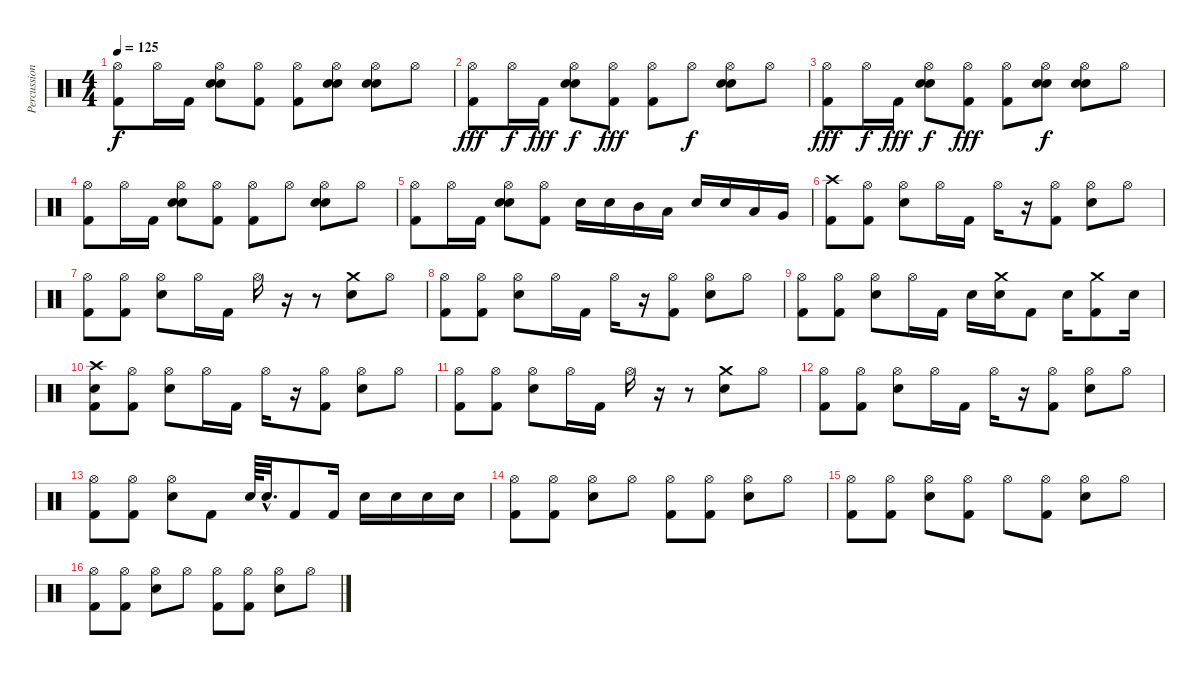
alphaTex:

\track ("Percussion" "Percussion") {instrument percussion}
\staff {score}
\articulation defaults
\ts (4 4)
\tempo 125
\clef neutral
\ks c
("Hi-Hat (open)" "Kick (hit) 2").8{dy f} "Hi-Hat (open)".16 "Kick (hit) 2".16 ("Hand Clap (hit)" "Hi-Hat (open)" "Electric Snare (hit)").8 ("Hi-Hat (open)" "Kick (hit) 2").8 ("Hi-Hat (open)" "Kick (hit) 2").8 ("Hand Clap (hit)" "Hi-Hat (open)" "Electric Snare (hit)").8 ("Hand Clap (hit)" "Hi-Hat (open)" "Electric Snare (hit)").8 "Hi-Hat (open)".8 |
("Hi-Hat (open)" "Kick (hit) 2").8{dy fff} "Hi-Hat (open)".16{dy f} "Kick (hit) 2".16{dy fff} ("Hand Clap (hit)" "Hi-Hat (open)" "Electric Snare (hit)").8{dy f} ("Hi-Hat (open)" "Kick (hit) 2").8{dy fff} ("Hi-Hat (open)" "Kick (hit) 2").8 "Hi-Hat (open)".8{dy f} ("Hand Clap (hit)" "Hi-Hat (open)" "Electric Snare (hit)").8 "Hi-Hat (open)".8 |
("Hi-Hat (open)" "Kick (hit) 2").8{dy fff} "Hi-Hat (open)".16{dy f} "Kick (hit) 2".16{dy fff} ("Hand Clap (hit)" "Hi-Hat (open)" "Electric Snare (hit)").8{dy f} ("Hi-Hat (open)" "Kick (hit) 2").8{dy fff} ("Hi-Hat (open)" "Kick (hit) 2").8 ("Hand Clap (hit)" "Hi-Hat (open)" "Electric Snare (hit)").8{dy f} ("Hand Clap (hit)" "Hi-Hat (open)" "Electric Snare (hit)").8 "Hi-Hat (open)".8 |
("Hi-Hat (open)" "Kick (hit) 2").8 "Hi-Hat (open)".16 "Kick (hit) 2".16 ("Hand Clap (hit)" "Hi-Hat (open)" "Electric Snare (hit)").8 ("Hi-Hat (open)" "Kick (hit) 2").8 ("Hi-Hat (open)" "Kick (hit) 2").8 "Hi-Hat (open)".8 ("Hand Clap (hit)" "Hi-Hat (open)" "Electric Snare (hit)").8 "Hi-Hat (open)".8 |
("Hi-Hat (open)" "Kick (hit) 2").8 "Hi-Hat (open)".16 "Kick (hit) 2".16 ("Hand Clap (hit)" "Hi-Hat (open)" "Electric Snare (hit)").8 ("Hi-Hat (open)" "Kick (hit) 2").8 "Electric Snare (hit)".16 "Electric Snare (hit)".16 "Mid Tom (hit)".16 "Low Tom (hit)".16 "Electric Snare (hit)".16 "Electric Snare (hit)".16 "Low Tom (hit)".16 "Very Low Tom (hit)".16 |
("Crash high (hit)" "Kick (hit) 2").8 ("Hi-Hat (open)" "Kick (hit) 2").8 ("Hi-Hat (open)" "Electric Snare (hit)").8 "Hi-Hat (open)".16 "Kick (hit) 2".16 "Hi-Hat (open)".16 r.16 ("Hi-Hat (open)" "Kick (hit) 2").8 ("Hi-Hat (open)" "Electric Snare (hit)").8 "Hi-Hat (open)".8 |
("Hi-Hat (open)" "Kick (hit) 2").8 ("Hi-Hat (open)" "Kick (hit) 2").8 ("Hi-Hat (open)" "Electric Snare (hit)").8 "Hi-Hat (open)".16 "Kick (hit) 2".16 "Hi-Hat (open)".16 r.16 r.8 ("Crash medium (hit)" "Electric Snare (hit)").8 "Hi-Hat (open)".8 |
("Hi-Hat (open)" "Kick (hit) 2").8 ("Hi-Hat (open)" "Kick (hit) 2").8 ("Hi-Hat (open)" "Electric Snare (hit)").8 "Hi-Hat (open)".16 "Kick (hit) 2".16 "Hi-Hat (open)".16 r.16 ("Hi-Hat (open)" "Kick (hit) 2").8 ("Hi-Hat (open)" "Electric Snare (hit)").8 "Hi-Hat (open)".8 |
("Hi-Hat (open)" "Kick (hit) 2").8 ("Hi-Hat (open)" "Kick (hit) 2").8 ("Hi-Hat (open)" "Electric Snare (hit)").8 "Hi-Hat (open)".16 "Kick (hit) 2".16 "Electric Snare (hit)".16 ("Crash medium (hit)" "Electric Snare (hit)").16 "Kick (hit) 2".8 "Electric Snare (hit)".16 ("Crash medium (hit)" "Kick (hit) 2").8 "Electric Snare (hit)".16 |
("Crash high (hit)" "Electric Snare (hit)" "Kick (hit) 2").8 ("Hi-Hat (open)" "Kick (hit) 2").8 ("Hi-Hat (open)" "Electric Snare (hit)").8 "Hi-Hat (open)".16 "Kick (hit) 2".16 "Hi-Hat (open)".16 r.16 ("Hi-Hat (open)" "Kick (hit) 2").8 ("Hi-Hat (open)" "Electric Snare (hit)").8 "Hi-Hat (open)".8 |
("Hi-Hat (open)" "Kick (hit) 2").8 ("Hi-Hat (open)" "Kick (hit) 2").8 ("Hi-Hat (open)" "Electric Snare (hit)").8 "Hi-Hat (open)".16 "Kick (hit) 2".16 "Hi-Hat (open)".16 r.16 r.8 ("Crash medium (hit)" "Electric Snare (hit)").8 "Hi-Hat (open)".8 |
("Hi-Hat (open)" "Kick (hit) 2").8 ("Hi-Hat (open)" "Kick (hit) 2").8 ("Hi-Hat (open)" "Electric Snare (hit)").8 "Hi-Hat (open)".16 "Kick (hit) 2".16 "Hi-Hat (open)".16 r.16 ("Hi-Hat (open)" "Kick (hit) 2").8 ("Hi-Hat (open)" "Electric Snare (hit)").8 "Hi-Hat (open)".8 |
("Hi-Hat (open)" "Kick (hit) 2").8 ("Hi-Hat (open)" "Kick (hit) 2").8 ("Hi-Hat (open)" "Electric Snare (hit)").8 "Kick (hit) 2".8 "Electric Snare (hit)".64 "Electric Snare (hit)"{hac}.32{d} "Kick (hit) 2".8 "Kick (hit) 2".16 "Electric Snare (hit)".16 "Electric Snare (hit)".16 "Electric Snare (hit)".16 "Electric Snare (hit)".16 |
("Hi-Hat (open)" "Kick (hit) 2").8 ("Hi-Hat (open)" "Kick (hit) 2").8 ("Hi-Hat (open)" "Electric Snare (hit)").8 "Hi-Hat (open)".8 ("Hi-Hat (open)" "Kick (hit) 2").8 ("Hi-Hat (open)" "Kick (hit) 2").8 ("Hi-Hat (open)" "Electric Snare (hit)").8 "Hi-Hat (open)".8 |
("Hi-Hat (open)" "Kick (hit) 2").8 ("Hi-Hat (open)" "Kick (hit) 2").8 ("Hi-Hat (open)" "Electric Snare (hit)").8 ("Hi-Hat (open)" "Kick (hit) 2").8 "Hi-Hat (open)".8 ("Hi-Hat (open)" "Kick (hit) 2").8 ("Hi-Hat (open)" "Electric Snare (hit)").8 "Hi-Hat (open)".8 |
("Hi-Hat (open)" "Kick (hit) 2").8 ("Hi-Hat (open)" "Kick (hit) 2").8 ("Hi-Hat (open)" "Electric Snare (hit)").8 "Hi-Hat (open)".8 ("Hi-Hat (open)" "Kick (hit) 2").8 ("Hi-Hat (open)" "Kick (hit) 2").8 ("Hi-Hat (open)" "Electric Snare (hit)").8 "Hi-Hat (open)".8
